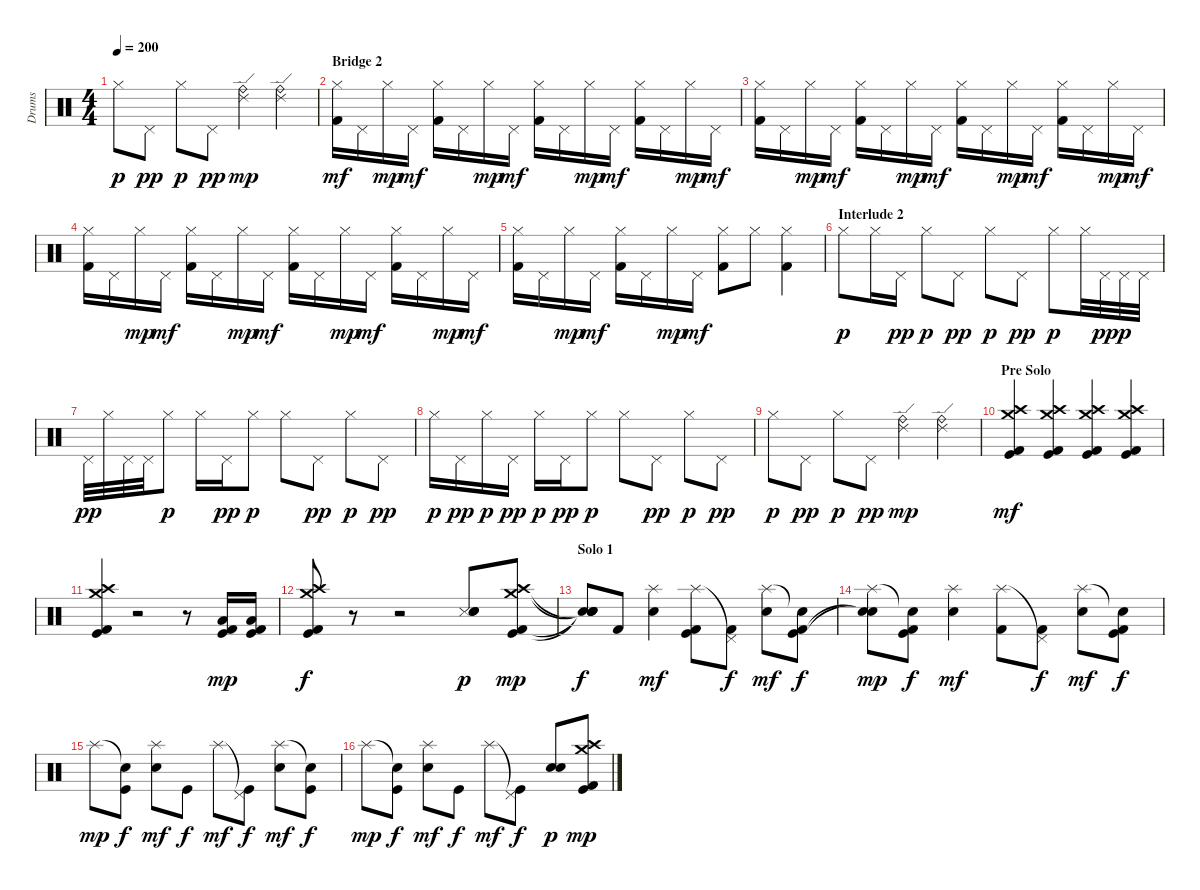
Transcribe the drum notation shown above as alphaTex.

\track ("Drums" "Drums") {instrument percussion}
\staff {score}
\articulation defaults
\ts (4 4)
\tempo 200
\clef neutral
\ks c "Hi-Hat (closed)".8{dy p} "Pedal Hi-Hat (hit)".8{dy pp} "Hi-Hat (closed)".8{dy p} "Pedal Hi-Hat (hit)".8{dy pp}
("Ride (edge) 2" "Ride (bell)").4{dy mp} ("Ride (edge) 2" "Ride (bell)").4 |
\section ("" "Bridge 2")
("Hi-Hat (closed)" "Kick (hit) 2").16{dy mf} "Pedal Hi-Hat (hit)".16 "Hi-Hat (closed)".16{dy mp} "Pedal Hi-Hat (hit)".16{dy mf} ("Hi-Hat (closed)" "Kick (hit) 2").16 "Pedal Hi-Hat (hit)".16 "Hi-Hat (closed)".16{dy mp} "Pedal Hi-Hat (hit)".16{dy mf} ("Hi-Hat (closed)" "Kick (hit) 2").16 "Pedal Hi-Hat (hit)".16 "Hi-Hat (closed)".16{dy mp} "Pedal Hi-Hat (hit)".16{dy mf} ("Hi-Hat (closed)" "Kick (hit) 2").16 "Pedal Hi-Hat (hit)".16 "Hi-Hat (closed)".16{dy mp} "Pedal Hi-Hat (hit)".16{dy mf} |
("Hi-Hat (closed)" "Kick (hit) 2").16 "Pedal Hi-Hat (hit)".16 "Hi-Hat (closed)".16{dy mp} "Pedal Hi-Hat (hit)".16{dy mf} ("Hi-Hat (closed)" "Kick (hit) 2").16 "Pedal Hi-Hat (hit)".16 "Hi-Hat (closed)".16{dy mp} "Pedal Hi-Hat (hit)".16{dy mf} ("Hi-Hat (closed)" "Kick (hit) 2").16 "Pedal Hi-Hat (hit)".16 "Hi-Hat (closed)".16{dy mp} "Pedal Hi-Hat (hit)".16{dy mf} ("Hi-Hat (closed)" "Kick (hit) 2").16 "Pedal Hi-Hat (hit)".16 "Hi-Hat (closed)".16{dy mp} "Pedal Hi-Hat (hit)".16{dy mf} |
("Hi-Hat (closed)" "Kick (hit) 2").16 "Pedal Hi-Hat (hit)".16 "Hi-Hat (closed)".16{dy mp} "Pedal Hi-Hat (hit)".16{dy mf} ("Hi-Hat (closed)" "Kick (hit) 2").16 "Pedal Hi-Hat (hit)".16 "Hi-Hat (closed)".16{dy mp} "Pedal Hi-Hat (hit)".16{dy mf} ("Hi-Hat (closed)" "Kick (hit) 2").16 "Pedal Hi-Hat (hit)".16 "Hi-Hat (closed)".16{dy mp} "Pedal Hi-Hat (hit)".16{dy mf} ("Hi-Hat (closed)" "Kick (hit) 2").16 "Pedal Hi-Hat (hit)".16 "Hi-Hat (closed)".16{dy mp} "Pedal Hi-Hat (hit)".16{dy mf} |
("Hi-Hat (closed)" "Kick (hit) 2").16 "Pedal Hi-Hat (hit)".16 "Hi-Hat (closed)".16{dy mp} "Pedal Hi-Hat (hit)".16{dy mf} ("Hi-Hat (closed)" "Kick (hit) 2").16 "Pedal Hi-Hat (hit)".16 "Hi-Hat (closed)".16{dy mp} "Pedal Hi-Hat (hit)".16{dy mf} ("Hi-Hat (closed)" "Kick (hit) 2").8 "Hi-Hat (closed)".8 ("Hi-Hat (closed)" "Kick (hit) 2").4 |
\section ("" "Interlude 2")
"Hi-Hat (closed)".8{dy p} "Hi-Hat (closed)".16 "Pedal Hi-Hat (hit)".16{dy pp} "Hi-Hat (closed)".8{dy p} "Pedal Hi-Hat (hit)".8{dy pp} "Hi-Hat (closed)".8{dy p} "Pedal Hi-Hat (hit)".8{dy pp} "Hi-Hat (closed)".8{dy p} "Hi-Hat (closed)".32 "Pedal Hi-Hat (hit)".32{dy pp} "Pedal Hi-Hat (hit)".32{dy p} "Pedal Hi-Hat (hit)".32 |
"Pedal Hi-Hat (hit)".32{dy pp} "Hi-Hat (closed)".32 "Pedal Hi-Hat (hit)".32 "Pedal Hi-Hat (hit)".32 "Hi-Hat (closed)".8{dy p} "Hi-Hat (closed)".16 "Pedal Hi-Hat (hit)".16{dy pp} "Hi-Hat (closed)".8{dy p} "Hi-Hat (closed)".8 "Pedal Hi-Hat (hit)".8{dy pp} "Hi-Hat (closed)".8{dy p} "Pedal Hi-Hat (hit)".8{dy pp} |
"Hi-Hat (closed)".16{dy p} "Pedal Hi-Hat (hit)".16{dy pp} "Hi-Hat (closed)".16{dy p} "Pedal Hi-Hat (hit)".16{dy pp} "Hi-Hat (closed)".16{dy p} "Pedal Hi-Hat (hit)".16{dy pp} "Hi-Hat (closed)".8{dy p} "Hi-Hat (closed)".8 "Pedal Hi-Hat (hit)".8{dy pp} "Hi-Hat (closed)".8{dy p} "Pedal Hi-Hat (hit)".8{dy pp} |
"Hi-Hat (closed)".8{dy p} "Pedal Hi-Hat (hit)".8{dy pp} "Hi-Hat (closed)".8{dy p} "Pedal Hi-Hat (hit)".8{dy pp} ("Ride (edge) 2" "Ride (bell)").4{dy mp} ("Ride (edge) 2" "Ride (bell)").4 |
\section ("" "Pre Solo")
("Crash high (hit)" "Crash medium (hit)" "Kick (hit)" "Kick (hit) 2").4{dy mf} ("Crash high (hit)" "Crash medium (hit)" "Kick (hit)" "Kick (hit) 2").4 ("Crash high (hit)" "Crash medium (hit)" "Kick (hit)" "Kick (hit) 2").4 ("Crash high (hit)" "Crash medium (hit)" "Kick (hit)" "Kick (hit) 2").4 |
("Crash high (hit)" "Crash medium (hit)" "Kick (hit)" "Kick (hit) 2").4 r.2 r.8 ("Low Floor Tom (hit)" "Kick (hit)" "Kick (hit) 2").16{dy mp} ("Low Floor Tom (hit)" "Kick (hit)" "Kick (hit) 2").16 |
("Crash high (hit)" "Crash medium (hit)" "Kick (hit)" "Kick (hit) 2").8{dy f} r.8 r.2 ("Snare (side stick) 3" "Snare (hit) 2" "Electric Snare (hit)").8{dy p} ("Crash high (hit)" "Crash medium (hit)" "Kick (hit)" "Kick (hit) 2").8{dy mp} |
\section ("" "Solo 1")
("Snare (hit)"{t} "Snare (hit)"{t} "Snare (hit)"{t} "Snare (hit)"{t}).8{dy f} "Kick (hit) 2".8 ("Splash (hit)" "Snare (hit) 2").4{dy mf} ("Splash (hit)" "Kick (hit)" "Kick (hit) 2").8 ("Pedal Hi-Hat (hit)"{t} "Kick (hit) 2").8{dy f} ("Splash (hit)" "Snare (hit) 2").8{dy mf} ("Snare (hit)"{t} "Kick (hit)" "Kick (hit) 2").8{dy f} |
("Splash (hit)" "Snare (hit)"{t} "Snare (hit)"{t}).8{dy mp} ("Snare (hit)"{t} "Kick (hit)" "Kick (hit) 2").8{dy f} ("Splash (hit)" "Snare (hit) 2").4{dy mf} ("Splash (hit)" "Kick (hit) 2").8 ("Pedal Hi-Hat (hit)"{t} "Kick (hit) 2").8{dy f} ("Splash (hit)" "Snare (hit) 2").8{dy mf} ("Snare (hit)"{t} "Kick (hit)" "Kick (hit) 2").8{dy f} |
"Splash (hit)".8{dy mp} ("Snare (hit)"{t} "Kick (hit)").8{dy f} ("Splash (hit)" "Snare (hit) 2").8{dy mf} "Kick (hit)".8{dy f} "Splash (hit)".8{dy mf} ("Pedal Hi-Hat (hit)"{t} "Kick (hit)").8{dy f} ("Splash (hit)" "Snare (hit) 2").8{dy mf} ("Snare (hit)"{t} "Kick (hit)").8{dy f} |
"Splash (hit)".8{dy mp} ("Snare (hit)"{t} "Kick (hit)").8{dy f} ("Splash (hit)" "Snare (hit) 2").8{dy mf} "Kick (hit)".8{dy f} "Splash (hit)".8{dy mf} ("Pedal Hi-Hat (hit)"{t} "Kick (hit)").8{dy f} ("Snare (hit) 2" "Electric Snare (hit)").8{dy p} ("Crash high (hit)" "Crash medium (hit)" "Kick (hit)" "Kick (hit) 2").8{dy mp}
